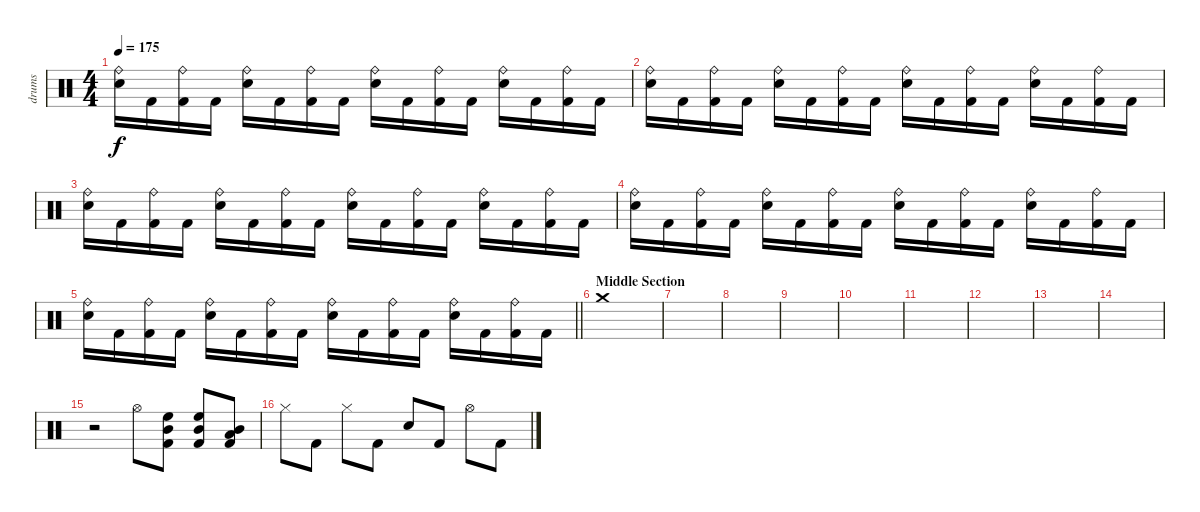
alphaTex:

\track ("drums" "drums") {instrument percussion}
\staff {score}
\articulation defaults
\ts (4 4)
\tempo 175
\clef neutral
\ks c
("Ride (bell)" "Snare (hit) 2").16{dy f} "Kick (hit) 2".16 ("Ride (bell)" "Kick (hit) 2").16 "Kick (hit) 2".16 ("Ride (bell)" "Snare (hit) 2").16 "Kick (hit) 2".16 ("Ride (bell)" "Kick (hit) 2").16 "Kick (hit) 2".16 ("Ride (bell)" "Snare (hit) 2").16 "Kick (hit) 2".16 ("Ride (bell)" "Kick (hit) 2").16 "Kick (hit) 2".16 ("Ride (bell)" "Snare (hit) 2").16 "Kick (hit) 2".16 ("Ride (bell)" "Kick (hit) 2").16 "Kick (hit) 2".16 |
("Ride (bell)" "Snare (hit) 2").16 "Kick (hit) 2".16 ("Ride (bell)" "Kick (hit) 2").16 "Kick (hit) 2".16 ("Ride (bell)" "Snare (hit) 2").16 "Kick (hit) 2".16 ("Ride (bell)" "Kick (hit) 2").16 "Kick (hit) 2".16 ("Ride (bell)" "Snare (hit) 2").16 "Kick (hit) 2".16 ("Ride (bell)" "Kick (hit) 2").16 "Kick (hit) 2".16 ("Ride (bell)" "Snare (hit) 2").16 "Kick (hit) 2".16 ("Ride (bell)" "Kick (hit) 2").16 "Kick (hit) 2".16 |
("Ride (bell)" "Snare (hit) 2").16 "Kick (hit) 2".16 ("Ride (bell)" "Kick (hit) 2").16 "Kick (hit) 2".16 ("Ride (bell)" "Snare (hit) 2").16 "Kick (hit) 2".16 ("Ride (bell)" "Kick (hit) 2").16 "Kick (hit) 2".16 ("Ride (bell)" "Snare (hit) 2").16 "Kick (hit) 2".16 ("Ride (bell)" "Kick (hit) 2").16 "Kick (hit) 2".16 ("Ride (bell)" "Snare (hit) 2").16 "Kick (hit) 2".16 ("Ride (bell)" "Kick (hit) 2").16 "Kick (hit) 2".16 |
("Ride (bell)" "Snare (hit) 2").16 "Kick (hit) 2".16 ("Ride (bell)" "Kick (hit) 2").16 "Kick (hit) 2".16 ("Ride (bell)" "Snare (hit) 2").16 "Kick (hit) 2".16 ("Ride (bell)" "Kick (hit) 2").16 "Kick (hit) 2".16 ("Ride (bell)" "Snare (hit) 2").16 "Kick (hit) 2".16 ("Ride (bell)" "Kick (hit) 2").16 "Kick (hit) 2".16 ("Ride (bell)" "Snare (hit) 2").16 "Kick (hit) 2".16 ("Ride (bell)" "Kick (hit) 2").16 "Kick (hit) 2".16 |
\barLineRight lightlight
("Ride (bell)" "Snare (hit) 2").16 "Kick (hit) 2".16 ("Ride (bell)" "Kick (hit) 2").16 "Kick (hit) 2".16 ("Ride (bell)" "Snare (hit) 2").16 "Kick (hit) 2".16 ("Ride (bell)" "Kick (hit) 2").16 "Kick (hit) 2".16 ("Ride (bell)" "Snare (hit) 2").16 "Kick (hit) 2".16 ("Ride (bell)" "Kick (hit) 2").16 "Kick (hit) 2".16 ("Ride (bell)" "Snare (hit) 2").16 "Kick (hit) 2".16 ("Ride (bell)" "Kick (hit) 2").16 "Kick (hit) 2".16 |
\section ("" "Middle Section")
"Crash medium (hit)".1 |
|
|
|
|
|
|
|
|
r.2 "Hi-Hat (open)".8 ("High Floor Tom (hit)" "Mid Tom (hit)" "Kick (hit) 2").8 ("High Floor Tom (hit)" "Mid Tom (hit)" "Kick (hit) 2").8 ("Low Tom (hit)" "Mid Tom (hit)" "Kick (hit) 2").8 |
"Hi-Hat (closed)".8 "Kick (hit) 2".8 "Hi-Hat (closed)".8 "Kick (hit) 2".8 "Snare (hit) 2".8 "Kick (hit) 2".8 "Hi-Hat (open)".8 "Kick (hit) 2".8
